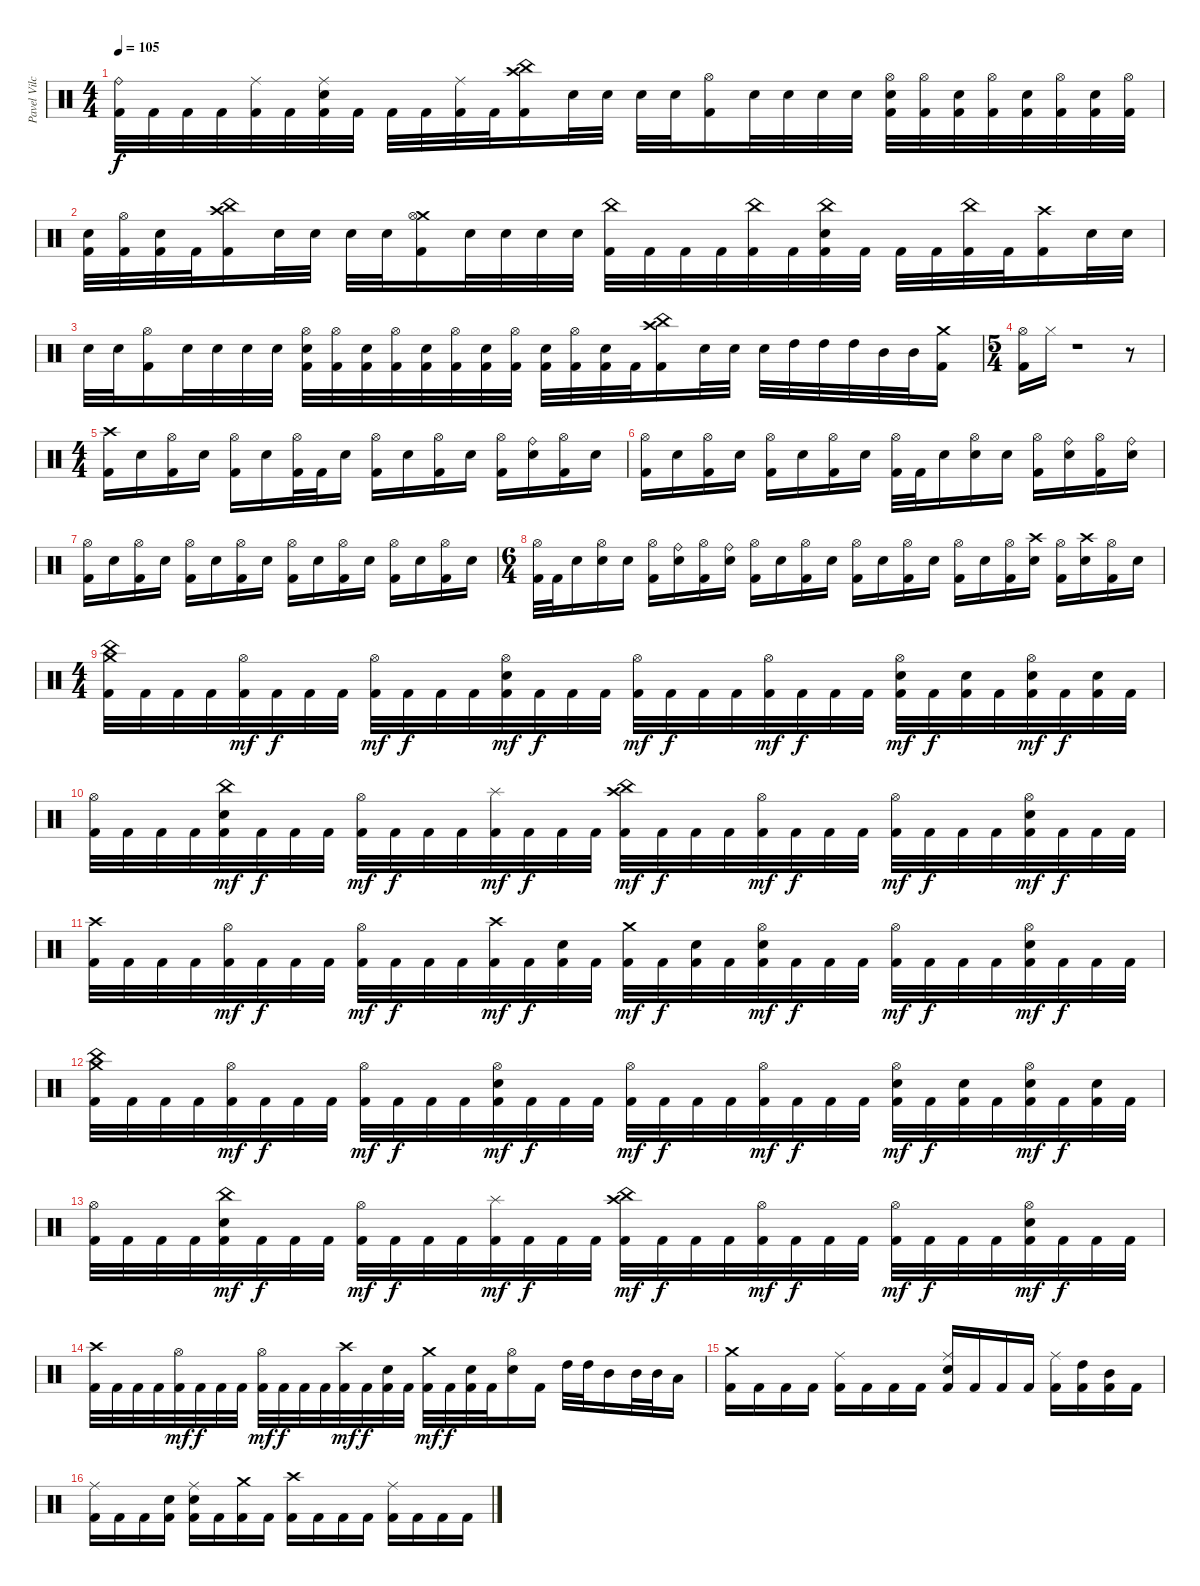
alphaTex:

\track ("Pavel Vilchytski " "Pavel Vilc") {instrument percussion}
\staff {score}
\articulation defaults
\ts (4 4)
\tempo 105
\clef neutral
\ks c
("Ride (bell)" "Kick (hit) 2").32{dy f} "Kick (hit) 2".32 "Kick (hit) 2".32 "Kick (hit) 2".32 ("Ride (middle)" "Kick (hit) 2").32 "Kick (hit) 2".32 ("Ride (middle)" "Electric Snare (hit)" "Kick (hit) 2").32 "Kick (hit) 2".32 "Kick (hit) 2".32 "Kick (hit) 2".32 ("Ride (middle)" "Kick (hit) 2").32 "Kick (hit) 2".32 ("China (hit)" "Crash high (hit)" "Kick (hit) 2").16 "Electric Snare (hit)".32 "Electric Snare (hit)".32 "Electric Snare (hit)".32 "Electric Snare (hit)".32 ("Hi-Hat (open)" "Kick (hit) 2").16 "Electric Snare (hit)".32 "Electric Snare (hit)".32 "Electric Snare (hit)".32 "Electric Snare (hit)".32 ("Hi-Hat (open)" "Electric Snare (hit)" "Kick (hit) 2").32 ("Hi-Hat (open)" "Kick (hit) 2").32 ("Electric Snare (hit)" "Kick (hit) 2").32 ("Hi-Hat (open)" "Kick (hit) 2").32 ("Electric Snare (hit)" "Kick (hit) 2").32 ("Hi-Hat (open)" "Kick (hit) 2").32 ("Electric Snare (hit)" "Kick (hit) 2").32 ("Hi-Hat (open)" "Kick (hit) 2").32 |
("Electric Snare (hit)" "Kick (hit) 2").32 ("Hi-Hat (open)" "Kick (hit) 2").32 ("Electric Snare (hit)" "Kick (hit) 2").32 "Kick (hit) 2".32 ("China (hit)" "Crash high (hit)" "Kick (hit) 2").16 "Electric Snare (hit)".32 "Electric Snare (hit)".32 "Electric Snare (hit)".32 "Electric Snare (hit)".32 ("Crash medium (hit)" "Hi-Hat (open)" "Kick (hit) 2").16 "Electric Snare (hit)".32 "Electric Snare (hit)".32 "Electric Snare (hit)".32 "Electric Snare (hit)".32 ("China (hit)" "Kick (hit) 2").32 "Kick (hit) 2".32 "Kick (hit) 2".32 "Kick (hit) 2".32 ("China (hit)" "Kick (hit) 2").32 "Kick (hit) 2".32 ("China (hit)" "Electric Snare (hit)" "Kick (hit) 2").32 "Kick (hit) 2".32 "Kick (hit) 2".32 "Kick (hit) 2".32 ("China (hit)" "Kick (hit) 2").32 "Kick (hit) 2".32 ("Crash high (hit)" "Kick (hit) 2").16 "Electric Snare (hit)".32 "Electric Snare (hit)".32 |
"Electric Snare (hit)".32 "Electric Snare (hit)".32 ("Hi-Hat (open)" "Kick (hit) 2").16 "Electric Snare (hit)".32 "Electric Snare (hit)".32 "Electric Snare (hit)".32 "Electric Snare (hit)".32 ("Hi-Hat (open)" "Electric Snare (hit)" "Kick (hit) 2").32 ("Hi-Hat (open)" "Kick (hit) 2").32 ("Electric Snare (hit)" "Kick (hit) 2").32 ("Hi-Hat (open)" "Kick (hit) 2").32 ("Electric Snare (hit)" "Kick (hit) 2").32 ("Hi-Hat (open)" "Kick (hit) 2").32 ("Electric Snare (hit)" "Kick (hit) 2").32 ("Hi-Hat (open)" "Kick (hit) 2").32 ("Electric Snare (hit)" "Kick (hit) 2").32 ("Hi-Hat (open)" "Kick (hit) 2").32 ("Electric Snare (hit)" "Kick (hit) 2").32 "Kick (hit) 2".32 ("China (hit)" "Crash high (hit)" "Kick (hit) 2").16 "Electric Snare (hit)".32 "Electric Snare (hit)".32 "Electric Snare (hit)".32 "High Tom (hit)".32 "High Tom (hit)".32 "High Tom (hit)".32 "Mid Tom (hit)".32 "Mid Tom (hit)".32 ("Crash medium (hit)" "Kick (hit) 2").16 |
\ts (5 4)
("Hi-Hat (open)" "Kick (hit) 2").16 "Hi-Hat (closed)".16 r.1 r.8 |
\ts (4 4)
("Crash high (hit)" "Kick (hit) 2").16 "Electric Snare (hit)".16 ("Hi-Hat (open)" "Kick (hit) 2").16 "Electric Snare (hit)".16 ("Hi-Hat (open)" "Kick (hit) 2").16 "Electric Snare (hit)".16 ("Hi-Hat (open)" "Kick (hit) 2").32 "Kick (hit) 2".32 "Electric Snare (hit)".16 ("Hi-Hat (open)" "Kick (hit) 2").16 "Electric Snare (hit)".16 ("Hi-Hat (open)" "Kick (hit) 2").16 "Electric Snare (hit)".16 ("Hi-Hat (open)" "Kick (hit) 2").16 ("Ride (bell)" "Electric Snare (hit)").16 ("Hi-Hat (open)" "Kick (hit) 2").16 "Electric Snare (hit)".16 |
("Hi-Hat (open)" "Kick (hit) 2").16 "Electric Snare (hit)".16 ("Hi-Hat (open)" "Kick (hit) 2").16 "Electric Snare (hit)".16 ("Hi-Hat (open)" "Kick (hit) 2").16 "Electric Snare (hit)".16 ("Hi-Hat (open)" "Kick (hit) 2").16 "Electric Snare (hit)".16 ("Hi-Hat (open)" "Kick (hit) 2").32 "Kick (hit) 2".32 "Electric Snare (hit)".16 ("Hi-Hat (open)" "Electric Snare (hit)").16 "Electric Snare (hit)".16 ("Hi-Hat (open)" "Kick (hit) 2").16 ("Ride (bell)" "Electric Snare (hit)").16 ("Hi-Hat (open)" "Kick (hit) 2").16 ("Ride (bell)" "Electric Snare (hit)").16 |
("Hi-Hat (open)" "Kick (hit) 2").16 "Electric Snare (hit)".16 ("Hi-Hat (open)" "Kick (hit) 2").16 "Electric Snare (hit)".16 ("Hi-Hat (open)" "Kick (hit) 2").16 "Electric Snare (hit)".16 ("Hi-Hat (open)" "Kick (hit) 2").16 "Electric Snare (hit)".16 ("Hi-Hat (open)" "Kick (hit) 2").16 "Electric Snare (hit)".16 ("Hi-Hat (open)" "Kick (hit) 2").16 "Electric Snare (hit)".16 ("Hi-Hat (open)" "Kick (hit) 2").16 "Electric Snare (hit)".16 ("Hi-Hat (open)" "Kick (hit) 2").16 "Electric Snare (hit)".16 |
\ts (6 4)
("Hi-Hat (open)" "Kick (hit) 2").32 "Kick (hit) 2".32 "Electric Snare (hit)".16 ("Hi-Hat (open)" "Electric Snare (hit)").16 "Electric Snare (hit)".16 ("Hi-Hat (open)" "Kick (hit) 2").16 ("Ride (bell)" "Electric Snare (hit)").16 ("Hi-Hat (open)" "Kick (hit) 2").16 ("Ride (bell)" "Electric Snare (hit)").16 ("Hi-Hat (open)" "Kick (hit) 2").16 "Electric Snare (hit)".16 ("Hi-Hat (open)" "Kick (hit) 2").16 "Electric Snare (hit)".16 ("Hi-Hat (open)" "Kick (hit) 2").16 "Electric Snare (hit)".16 ("Hi-Hat (open)" "Kick (hit) 2").16 "Electric Snare (hit)".16 ("Hi-Hat (open)" "Kick (hit) 2").16 "Electric Snare (hit)".16 ("Hi-Hat (open)" "Kick (hit) 2").16 ("Crash high (hit)" "Electric Snare (hit)").16 ("Hi-Hat (open)" "Kick (hit) 2").16 ("Crash high (hit)" "Electric Snare (hit)").16 ("Hi-Hat (open)" "Kick (hit) 2").16 "Electric Snare (hit)".16 |
\ts (4 4)
("Kick (hit) 2" "China (hit)" "Crash medium (hit)").32 "Kick (hit) 2".32 "Kick (hit) 2".32 "Kick (hit) 2".32 ("Kick (hit) 2" "Hi-Hat (open)").32{dy mf} "Kick (hit) 2".32{dy f} "Kick (hit) 2".32 "Kick (hit) 2".32 ("Kick (hit) 2" "Hi-Hat (open)").32{dy mf} "Kick (hit) 2".32{dy f} "Kick (hit) 2".32 "Kick (hit) 2".32 ("Kick (hit) 2" "Hi-Hat (open)" "Electric Snare (hit)").32{dy mf} "Kick (hit) 2".32{dy f} "Kick (hit) 2".32 "Kick (hit) 2".32 ("Kick (hit) 2" "Hi-Hat (open)").32{dy mf} "Kick (hit) 2".32{dy f} "Kick (hit) 2".32 "Kick (hit) 2".32 ("Kick (hit) 2" "Hi-Hat (open)").32{dy mf} "Kick (hit) 2".32{dy f} "Kick (hit) 2".32 "Kick (hit) 2".32 ("Kick (hit) 2" "Hi-Hat (open)" "Electric Snare (hit)").32{dy mf} "Kick (hit) 2".32{dy f} ("Kick (hit) 2" "Electric Snare (hit)").32 "Kick (hit) 2".32 ("Kick (hit) 2" "Hi-Hat (open)" "Electric Snare (hit)").32{dy mf} "Kick (hit) 2".32{dy f} ("Kick (hit) 2" "Electric Snare (hit)").32 "Kick (hit) 2".32 |
("Kick (hit) 2" "Hi-Hat (open)").32 "Kick (hit) 2".32 "Kick (hit) 2".32 "Kick (hit) 2".32 ("Kick (hit) 2" "China (hit)" "Electric Snare (hit)").32{dy mf} "Kick (hit) 2".32{dy f} "Kick (hit) 2".32 "Kick (hit) 2".32 ("Kick (hit) 2" "Hi-Hat (open)").32{dy mf} "Kick (hit) 2".32{dy f} "Kick (hit) 2".32 "Kick (hit) 2".32 ("Kick (hit) 2" "Splash (hit)").32{dy mf} "Kick (hit) 2".32{dy f} "Kick (hit) 2".32 "Kick (hit) 2".32 ("Kick (hit) 2" "China (hit)" "Crash high (hit)").32{dy mf} "Kick (hit) 2".32{dy f} "Kick (hit) 2".32 "Kick (hit) 2".32 ("Kick (hit) 2" "Hi-Hat (open)").32{dy mf} "Kick (hit) 2".32{dy f} "Kick (hit) 2".32 "Kick (hit) 2".32 ("Kick (hit) 2" "Hi-Hat (open)").32{dy mf} "Kick (hit) 2".32{dy f} "Kick (hit) 2".32 "Kick (hit) 2".32 ("Kick (hit) 2" "Hi-Hat (open)" "Electric Snare (hit)").32{dy mf} "Kick (hit) 2".32{dy f} "Kick (hit) 2".32 "Kick (hit) 2".32 |
("Kick (hit) 2" "Crash high (hit)").32 "Kick (hit) 2".32 "Kick (hit) 2".32 "Kick (hit) 2".32 ("Kick (hit) 2" "Hi-Hat (open)").32{dy mf} "Kick (hit) 2".32{dy f} "Kick (hit) 2".32 "Kick (hit) 2".32 ("Kick (hit) 2" "Hi-Hat (open)").32{dy mf} "Kick (hit) 2".32{dy f} "Kick (hit) 2".32 "Kick (hit) 2".32 ("Kick (hit) 2" "Crash high (hit)").32{dy mf} "Kick (hit) 2".32{dy f} ("Kick (hit) 2" "Electric Snare (hit)").32 "Kick (hit) 2".32 ("Kick (hit) 2" "Crash medium (hit)").32{dy mf} "Kick (hit) 2".32{dy f} ("Kick (hit) 2" "Electric Snare (hit)").32 "Kick (hit) 2".32 ("Kick (hit) 2" "Hi-Hat (open)" "Electric Snare (hit)").32{dy mf} "Kick (hit) 2".32{dy f} "Kick (hit) 2".32 "Kick (hit) 2".32 ("Kick (hit) 2" "Hi-Hat (open)").32{dy mf} "Kick (hit) 2".32{dy f} "Kick (hit) 2".32 "Kick (hit) 2".32 ("Kick (hit) 2" "Hi-Hat (open)" "Electric Snare (hit)").32{dy mf} "Kick (hit) 2".32{dy f} "Kick (hit) 2".32 "Kick (hit) 2".32 |
("Kick (hit) 2" "China (hit)" "Crash medium (hit)").32 "Kick (hit) 2".32 "Kick (hit) 2".32 "Kick (hit) 2".32 ("Kick (hit) 2" "Hi-Hat (open)").32{dy mf} "Kick (hit) 2".32{dy f} "Kick (hit) 2".32 "Kick (hit) 2".32 ("Kick (hit) 2" "Hi-Hat (open)").32{dy mf} "Kick (hit) 2".32{dy f} "Kick (hit) 2".32 "Kick (hit) 2".32 ("Kick (hit) 2" "Hi-Hat (open)" "Electric Snare (hit)").32{dy mf} "Kick (hit) 2".32{dy f} "Kick (hit) 2".32 "Kick (hit) 2".32 ("Kick (hit) 2" "Hi-Hat (open)").32{dy mf} "Kick (hit) 2".32{dy f} "Kick (hit) 2".32 "Kick (hit) 2".32 ("Kick (hit) 2" "Hi-Hat (open)").32{dy mf} "Kick (hit) 2".32{dy f} "Kick (hit) 2".32 "Kick (hit) 2".32 ("Kick (hit) 2" "Hi-Hat (open)" "Electric Snare (hit)").32{dy mf} "Kick (hit) 2".32{dy f} ("Kick (hit) 2" "Electric Snare (hit)").32 "Kick (hit) 2".32 ("Kick (hit) 2" "Hi-Hat (open)" "Electric Snare (hit)").32{dy mf} "Kick (hit) 2".32{dy f} ("Kick (hit) 2" "Electric Snare (hit)").32 "Kick (hit) 2".32 |
("Kick (hit) 2" "Hi-Hat (open)").32 "Kick (hit) 2".32 "Kick (hit) 2".32 "Kick (hit) 2".32 ("Kick (hit) 2" "China (hit)" "Electric Snare (hit)").32{dy mf} "Kick (hit) 2".32{dy f} "Kick (hit) 2".32 "Kick (hit) 2".32 ("Kick (hit) 2" "Hi-Hat (open)").32{dy mf} "Kick (hit) 2".32{dy f} "Kick (hit) 2".32 "Kick (hit) 2".32 ("Kick (hit) 2" "Splash (hit)").32{dy mf} "Kick (hit) 2".32{dy f} "Kick (hit) 2".32 "Kick (hit) 2".32 ("Kick (hit) 2" "China (hit)" "Crash high (hit)").32{dy mf} "Kick (hit) 2".32{dy f} "Kick (hit) 2".32 "Kick (hit) 2".32 ("Kick (hit) 2" "Hi-Hat (open)").32{dy mf} "Kick (hit) 2".32{dy f} "Kick (hit) 2".32 "Kick (hit) 2".32 ("Kick (hit) 2" "Hi-Hat (open)").32{dy mf} "Kick (hit) 2".32{dy f} "Kick (hit) 2".32 "Kick (hit) 2".32 ("Kick (hit) 2" "Hi-Hat (open)" "Electric Snare (hit)").32{dy mf} "Kick (hit) 2".32{dy f} "Kick (hit) 2".32 "Kick (hit) 2".32 |
("Kick (hit) 2" "Crash high (hit)").32 "Kick (hit) 2".32 "Kick (hit) 2".32 "Kick (hit) 2".32 ("Kick (hit) 2" "Hi-Hat (open)").32{dy mf} "Kick (hit) 2".32{dy f} "Kick (hit) 2".32 "Kick (hit) 2".32 ("Kick (hit) 2" "Hi-Hat (open)").32{dy mf} "Kick (hit) 2".32{dy f} "Kick (hit) 2".32 "Kick (hit) 2".32 ("Kick (hit) 2" "Crash high (hit)").32{dy mf} "Kick (hit) 2".32{dy f} ("Kick (hit) 2" "Electric Snare (hit)").32 "Kick (hit) 2".32 ("Kick (hit) 2" "Crash medium (hit)").32{dy mf} "Kick (hit) 2".32{dy f} ("Kick (hit) 2" "Electric Snare (hit)").32 "Kick (hit) 2".32 ("Hi-Hat (open)" "Electric Snare (hit)").16 "Kick (hit) 2".16 "High Tom (hit)".32 "High Tom (hit)".32 "Mid Tom (hit)".16 "Mid Tom (hit)".32 "Mid Tom (hit)".32 "Low Tom (hit)".16 |
("Crash medium (hit)" "Kick (hit) 2").16 "Kick (hit) 2".16 "Kick (hit) 2".16 "Kick (hit) 2".16 ("Ride (middle)" "Kick (hit) 2").16 "Kick (hit) 2".16 "Kick (hit) 2".16 "Kick (hit) 2".16 ("Ride (middle)" "Electric Snare (hit)" "Kick (hit) 2").16 "Kick (hit) 2".16 "Kick (hit) 2".16 "Kick (hit) 2".16 ("Ride (middle)" "Kick (hit) 2").16 ("High Tom (hit)" "Kick (hit) 2").16 ("Mid Tom (hit)" "Kick (hit) 2").16 "Kick (hit) 2".16 |
("Ride (middle)" "Kick (hit) 2").16 "Kick (hit) 2".16 "Kick (hit) 2".16 ("Electric Snare (hit)" "Kick (hit) 2").16 ("Ride (middle)" "Electric Snare (hit)" "Kick (hit) 2").16 "Kick (hit) 2".16 ("Crash medium (hit)" "Kick (hit) 2").16 "Kick (hit) 2".16 ("Crash high (hit)" "Kick (hit) 2").16 "Kick (hit) 2".16 "Kick (hit) 2".16 "Kick (hit) 2".16 ("Ride (middle)" "Kick (hit) 2").16 "Kick (hit) 2".16 "Kick (hit) 2".16 "Kick (hit) 2".16
